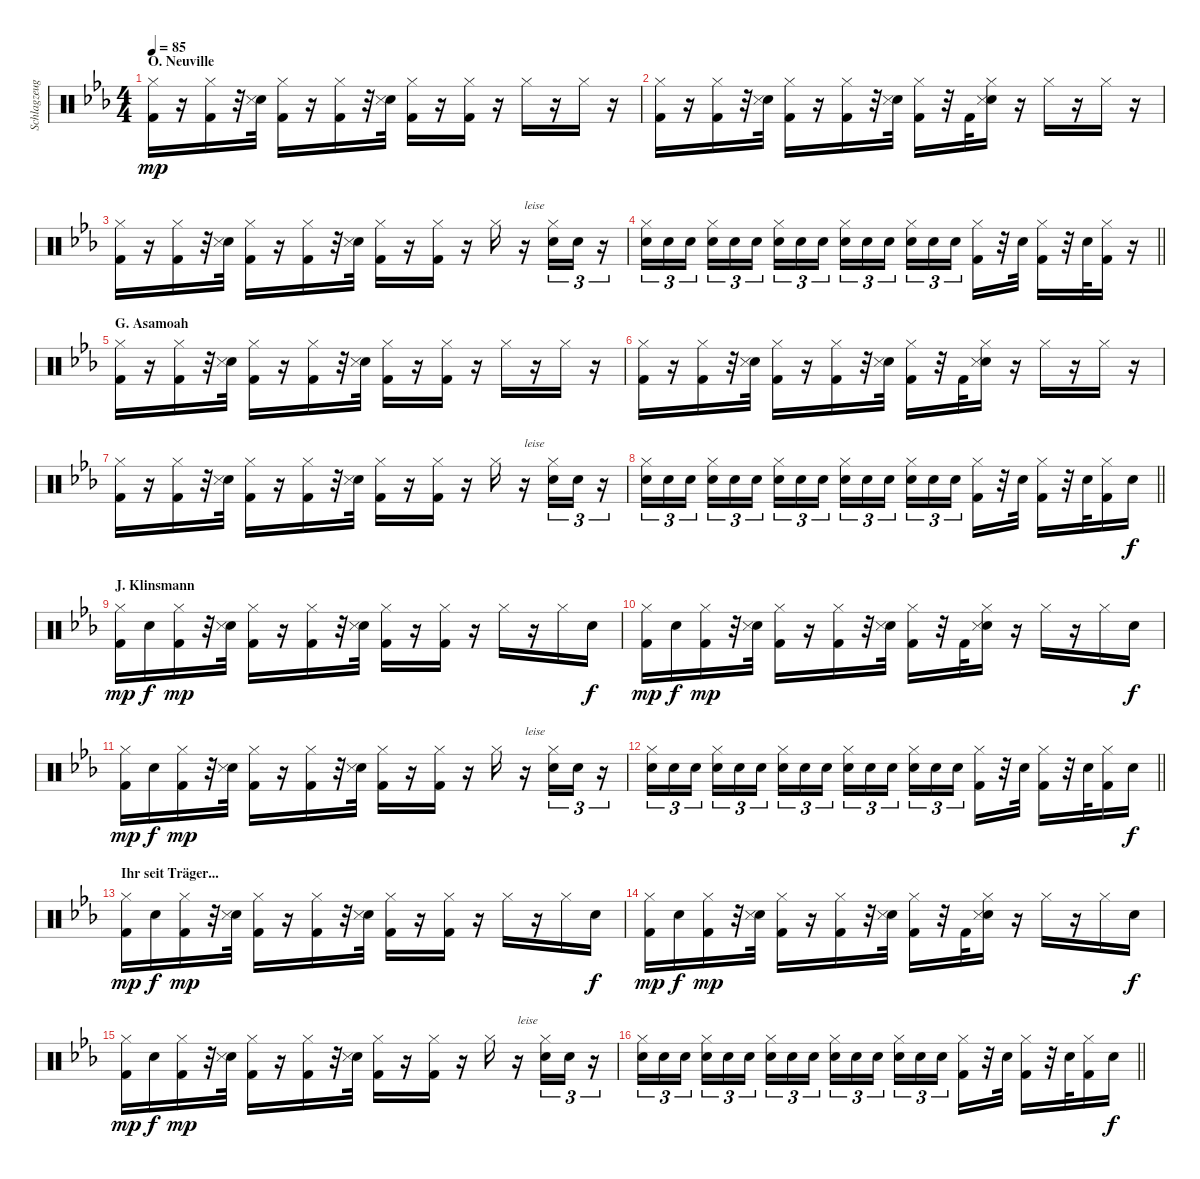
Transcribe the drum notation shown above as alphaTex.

\track ("Schlagzeug" "Schlagzeug") {instrument percussion}
\staff {score}
\articulation defaults
\ts (4 4)
\section ("" "O. Neuville")
\tempo 85
\clef neutral
\ks cminor
("Hi-Hat (closed)" "Kick (hit) 2").16{dy mp} r.16 ("Hi-Hat (closed)" "Kick (hit) 2").16 r.32 ("Electric Snare (hit)" "Snare (side stick) 3").32 ("Hi-Hat (closed)" "Kick (hit) 2").16 r.16 ("Hi-Hat (closed)" "Kick (hit) 2").16 r.32 ("Electric Snare (hit)" "Snare (side stick) 3").32 ("Hi-Hat (closed)" "Kick (hit) 2").16 r.16 ("Hi-Hat (closed)" "Kick (hit) 2").16 r.16 "Hi-Hat (closed)".16 r.16 "Hi-Hat (closed)".16 r.16 |
("Hi-Hat (closed)" "Kick (hit) 2").16 r.16 ("Hi-Hat (closed)" "Kick (hit) 2").16 r.32 ("Electric Snare (hit)" "Snare (side stick) 3").32 ("Hi-Hat (closed)" "Kick (hit) 2").16 r.16 ("Hi-Hat (closed)" "Kick (hit) 2").16 r.32 ("Electric Snare (hit)" "Snare (side stick) 3").32 ("Hi-Hat (closed)" "Kick (hit) 2").16 r.32 "Kick (hit) 2".32 ("Hi-Hat (closed)" "Electric Snare (hit)" "Snare (side stick) 3").16 r.16 "Hi-Hat (closed)".16 r.16 "Hi-Hat (closed)".16 r.16 |
("Hi-Hat (closed)" "Kick (hit) 2").16 r.16 ("Hi-Hat (closed)" "Kick (hit) 2").16 r.32 ("Electric Snare (hit)" "Snare (side stick) 3").32 ("Hi-Hat (closed)" "Kick (hit) 2").16 r.16 ("Hi-Hat (closed)" "Kick (hit) 2").16 r.32 ("Electric Snare (hit)" "Snare (side stick) 3").32 ("Hi-Hat (closed)" "Kick (hit) 2").16 r.16 ("Hi-Hat (closed)" "Kick (hit) 2").16 r.16 "Hi-Hat (closed)".16 r.16{txt "leise" volume 5} ("Hi-Hat (closed)" "Electric Snare (hit)").16{tu (3 2)} "Electric Snare (hit)".16{tu (3 2)} r.16{tu (3 2)} |
\barLineRight lightlight
("Hi-Hat (closed)" "Electric Snare (hit)").16{tu (3 2) volume 15} "Electric Snare (hit)".16{tu (3 2)} "Electric Snare (hit)".16{tu (3 2) beam splitsecondary} ("Hi-Hat (closed)" "Electric Snare (hit)").16{tu (3 2)} "Electric Snare (hit)".16{tu (3 2)} "Electric Snare (hit)".16{tu (3 2)} ("Hi-Hat (closed)" "Electric Snare (hit)").16{tu (3 2)} "Electric Snare (hit)".16{tu (3 2)} "Electric Snare (hit)".16{tu (3 2) beam splitsecondary} ("Hi-Hat (closed)" "Electric Snare (hit)").16{tu (3 2)} "Electric Snare (hit)".16{tu (3 2)} "Electric Snare (hit)".16{tu (3 2)} ("Hi-Hat (closed)" "Electric Snare (hit)").16{tu (3 2)} "Electric Snare (hit)".16{tu (3 2)} "Electric Snare (hit)".16{tu (3 2) beam splitsecondary} ("Hi-Hat (closed)" "Kick (hit) 2").16 r.32 "Electric Snare (hit)".32 ("Hi-Hat (closed)" "Kick (hit) 2").16 r.32 "Electric Snare (hit)".32 ("Hi-Hat (closed)" "Kick (hit) 2").16 r.16 |
\section ("" "G. Asamoah")
("Hi-Hat (closed)" "Kick (hit) 2").16 r.16 ("Hi-Hat (closed)" "Kick (hit) 2").16 r.32 ("Electric Snare (hit)" "Snare (side stick) 3").32 ("Hi-Hat (closed)" "Kick (hit) 2").16 r.16 ("Hi-Hat (closed)" "Kick (hit) 2").16 r.32 ("Electric Snare (hit)" "Snare (side stick) 3").32 ("Hi-Hat (closed)" "Kick (hit) 2").16 r.16 ("Hi-Hat (closed)" "Kick (hit) 2").16 r.16 "Hi-Hat (closed)".16 r.16 "Hi-Hat (closed)".16 r.16 |
("Hi-Hat (closed)" "Kick (hit) 2").16 r.16 ("Hi-Hat (closed)" "Kick (hit) 2").16 r.32 ("Electric Snare (hit)" "Snare (side stick) 3").32 ("Hi-Hat (closed)" "Kick (hit) 2").16 r.16 ("Hi-Hat (closed)" "Kick (hit) 2").16 r.32 ("Electric Snare (hit)" "Snare (side stick) 3").32 ("Hi-Hat (closed)" "Kick (hit) 2").16 r.32 "Kick (hit) 2".32 ("Hi-Hat (closed)" "Electric Snare (hit)" "Snare (side stick) 3").16 r.16 "Hi-Hat (closed)".16 r.16 "Hi-Hat (closed)".16 r.16 |
("Hi-Hat (closed)" "Kick (hit) 2").16 r.16 ("Hi-Hat (closed)" "Kick (hit) 2").16 r.32 ("Electric Snare (hit)" "Snare (side stick) 3").32 ("Hi-Hat (closed)" "Kick (hit) 2").16 r.16 ("Hi-Hat (closed)" "Kick (hit) 2").16 r.32 ("Electric Snare (hit)" "Snare (side stick) 3").32 ("Hi-Hat (closed)" "Kick (hit) 2").16 r.16 ("Hi-Hat (closed)" "Kick (hit) 2").16 r.16 "Hi-Hat (closed)".16 r.16{txt "leise" volume 5} ("Hi-Hat (closed)" "Electric Snare (hit)").16{tu (3 2)} "Electric Snare (hit)".16{tu (3 2)} r.16{tu (3 2)} |
\barLineRight lightlight
("Hi-Hat (closed)" "Electric Snare (hit)").16{tu (3 2) volume 15} "Electric Snare (hit)".16{tu (3 2)} "Electric Snare (hit)".16{tu (3 2) beam splitsecondary} ("Hi-Hat (closed)" "Electric Snare (hit)").16{tu (3 2)} "Electric Snare (hit)".16{tu (3 2)} "Electric Snare (hit)".16{tu (3 2)} ("Hi-Hat (closed)" "Electric Snare (hit)").16{tu (3 2)} "Electric Snare (hit)".16{tu (3 2)} "Electric Snare (hit)".16{tu (3 2) beam splitsecondary} ("Hi-Hat (closed)" "Electric Snare (hit)").16{tu (3 2)} "Electric Snare (hit)".16{tu (3 2)} "Electric Snare (hit)".16{tu (3 2)} ("Hi-Hat (closed)" "Electric Snare (hit)").16{tu (3 2)} "Electric Snare (hit)".16{tu (3 2)} "Electric Snare (hit)".16{tu (3 2) beam splitsecondary} ("Hi-Hat (closed)" "Kick (hit) 2").16 r.32 "Electric Snare (hit)".32 ("Hi-Hat (closed)" "Kick (hit) 2").16 r.32 "Electric Snare (hit)".32 ("Hi-Hat (closed)" "Kick (hit) 2").16 "Snare (hit) 2".16{dy f} |
\section ("" "J. Klinsmann")
("Hi-Hat (closed)" "Kick (hit) 2").16{dy mp} "Snare (hit) 2".16{dy f} ("Hi-Hat (closed)" "Kick (hit) 2").16{dy mp} r.32 ("Electric Snare (hit)" "Snare (side stick) 3").32 ("Hi-Hat (closed)" "Kick (hit) 2").16 r.16 ("Hi-Hat (closed)" "Kick (hit) 2").16 r.32 ("Electric Snare (hit)" "Snare (side stick) 3").32 ("Hi-Hat (closed)" "Kick (hit) 2").16 r.16 ("Hi-Hat (closed)" "Kick (hit) 2").16 r.16 "Hi-Hat (closed)".16 r.16 "Hi-Hat (closed)".16 "Snare (hit) 2".16{dy f} |
("Hi-Hat (closed)" "Kick (hit) 2").16{dy mp} "Snare (hit) 2".16{dy f} ("Hi-Hat (closed)" "Kick (hit) 2").16{dy mp} r.32 ("Electric Snare (hit)" "Snare (side stick) 3").32 ("Hi-Hat (closed)" "Kick (hit) 2").16 r.16 ("Hi-Hat (closed)" "Kick (hit) 2").16 r.32 ("Electric Snare (hit)" "Snare (side stick) 3").32 ("Hi-Hat (closed)" "Kick (hit) 2").16 r.32 "Kick (hit) 2".32 ("Hi-Hat (closed)" "Electric Snare (hit)" "Snare (side stick) 3").16 r.16 "Hi-Hat (closed)".16 r.16 "Hi-Hat (closed)".16 "Snare (hit) 2".16{dy f} |
("Hi-Hat (closed)" "Kick (hit) 2").16{dy mp} "Snare (hit) 2".16{dy f} ("Hi-Hat (closed)" "Kick (hit) 2").16{dy mp} r.32 ("Electric Snare (hit)" "Snare (side stick) 3").32 ("Hi-Hat (closed)" "Kick (hit) 2").16 r.16 ("Hi-Hat (closed)" "Kick (hit) 2").16 r.32 ("Electric Snare (hit)" "Snare (side stick) 3").32 ("Hi-Hat (closed)" "Kick (hit) 2").16 r.16 ("Hi-Hat (closed)" "Kick (hit) 2").16 r.16 "Hi-Hat (closed)".16 r.16{txt "leise" volume 5} ("Hi-Hat (closed)" "Electric Snare (hit)").16{tu (3 2)} "Electric Snare (hit)".16{tu (3 2)} r.16{tu (3 2)} |
\barLineRight lightlight
("Hi-Hat (closed)" "Electric Snare (hit)").16{tu (3 2) volume 15} "Electric Snare (hit)".16{tu (3 2)} "Electric Snare (hit)".16{tu (3 2) beam splitsecondary} ("Hi-Hat (closed)" "Electric Snare (hit)").16{tu (3 2)} "Electric Snare (hit)".16{tu (3 2)} "Electric Snare (hit)".16{tu (3 2)} ("Hi-Hat (closed)" "Electric Snare (hit)").16{tu (3 2)} "Electric Snare (hit)".16{tu (3 2)} "Electric Snare (hit)".16{tu (3 2) beam splitsecondary} ("Hi-Hat (closed)" "Electric Snare (hit)").16{tu (3 2)} "Electric Snare (hit)".16{tu (3 2)} "Electric Snare (hit)".16{tu (3 2)} ("Hi-Hat (closed)" "Electric Snare (hit)").16{tu (3 2)} "Electric Snare (hit)".16{tu (3 2)} "Electric Snare (hit)".16{tu (3 2) beam splitsecondary} ("Hi-Hat (closed)" "Kick (hit) 2").16 r.32 "Electric Snare (hit)".32 ("Hi-Hat (closed)" "Kick (hit) 2").16 r.32 "Electric Snare (hit)".32 ("Hi-Hat (closed)" "Kick (hit) 2").16 "Snare (hit) 2".16{dy f} |
\section ("" "Ihr seit Träger...")
("Hi-Hat (closed)" "Kick (hit) 2").16{dy mp} "Snare (hit) 2".16{dy f} ("Hi-Hat (closed)" "Kick (hit) 2").16{dy mp} r.32 ("Electric Snare (hit)" "Snare (side stick) 3").32 ("Hi-Hat (closed)" "Kick (hit) 2").16 r.16 ("Hi-Hat (closed)" "Kick (hit) 2").16 r.32 ("Electric Snare (hit)" "Snare (side stick) 3").32 ("Hi-Hat (closed)" "Kick (hit) 2").16 r.16 ("Hi-Hat (closed)" "Kick (hit) 2").16 r.16 "Hi-Hat (closed)".16 r.16 "Hi-Hat (closed)".16 "Snare (hit) 2".16{dy f} |
("Hi-Hat (closed)" "Kick (hit) 2").16{dy mp} "Snare (hit) 2".16{dy f} ("Hi-Hat (closed)" "Kick (hit) 2").16{dy mp} r.32 ("Electric Snare (hit)" "Snare (side stick) 3").32 ("Hi-Hat (closed)" "Kick (hit) 2").16 r.16 ("Hi-Hat (closed)" "Kick (hit) 2").16 r.32 ("Electric Snare (hit)" "Snare (side stick) 3").32 ("Hi-Hat (closed)" "Kick (hit) 2").16 r.32 "Kick (hit) 2".32 ("Hi-Hat (closed)" "Electric Snare (hit)" "Snare (side stick) 3").16 r.16 "Hi-Hat (closed)".16 r.16 "Hi-Hat (closed)".16 "Snare (hit) 2".16{dy f} |
("Hi-Hat (closed)" "Kick (hit) 2").16{dy mp} "Snare (hit) 2".16{dy f} ("Hi-Hat (closed)" "Kick (hit) 2").16{dy mp} r.32 ("Electric Snare (hit)" "Snare (side stick) 3").32 ("Hi-Hat (closed)" "Kick (hit) 2").16 r.16 ("Hi-Hat (closed)" "Kick (hit) 2").16 r.32 ("Electric Snare (hit)" "Snare (side stick) 3").32 ("Hi-Hat (closed)" "Kick (hit) 2").16 r.16 ("Hi-Hat (closed)" "Kick (hit) 2").16 r.16 "Hi-Hat (closed)".16 r.16{txt "leise" volume 5} ("Hi-Hat (closed)" "Electric Snare (hit)").16{tu (3 2)} "Electric Snare (hit)".16{tu (3 2)} r.16{tu (3 2)} |
\barLineRight lightlight
("Hi-Hat (closed)" "Electric Snare (hit)").16{tu (3 2) volume 15} "Electric Snare (hit)".16{tu (3 2)} "Electric Snare (hit)".16{tu (3 2) beam splitsecondary} ("Hi-Hat (closed)" "Electric Snare (hit)").16{tu (3 2)} "Electric Snare (hit)".16{tu (3 2)} "Electric Snare (hit)".16{tu (3 2)} ("Hi-Hat (closed)" "Electric Snare (hit)").16{tu (3 2)} "Electric Snare (hit)".16{tu (3 2)} "Electric Snare (hit)".16{tu (3 2) beam splitsecondary} ("Hi-Hat (closed)" "Electric Snare (hit)").16{tu (3 2)} "Electric Snare (hit)".16{tu (3 2)} "Electric Snare (hit)".16{tu (3 2)} ("Hi-Hat (closed)" "Electric Snare (hit)").16{tu (3 2)} "Electric Snare (hit)".16{tu (3 2)} "Electric Snare (hit)".16{tu (3 2) beam splitsecondary} ("Hi-Hat (closed)" "Kick (hit) 2").16 r.32 "Electric Snare (hit)".32 ("Hi-Hat (closed)" "Kick (hit) 2").16 r.32 "Electric Snare (hit)".32 ("Hi-Hat (closed)" "Kick (hit) 2").16 "Snare (hit) 2".16{dy f}
